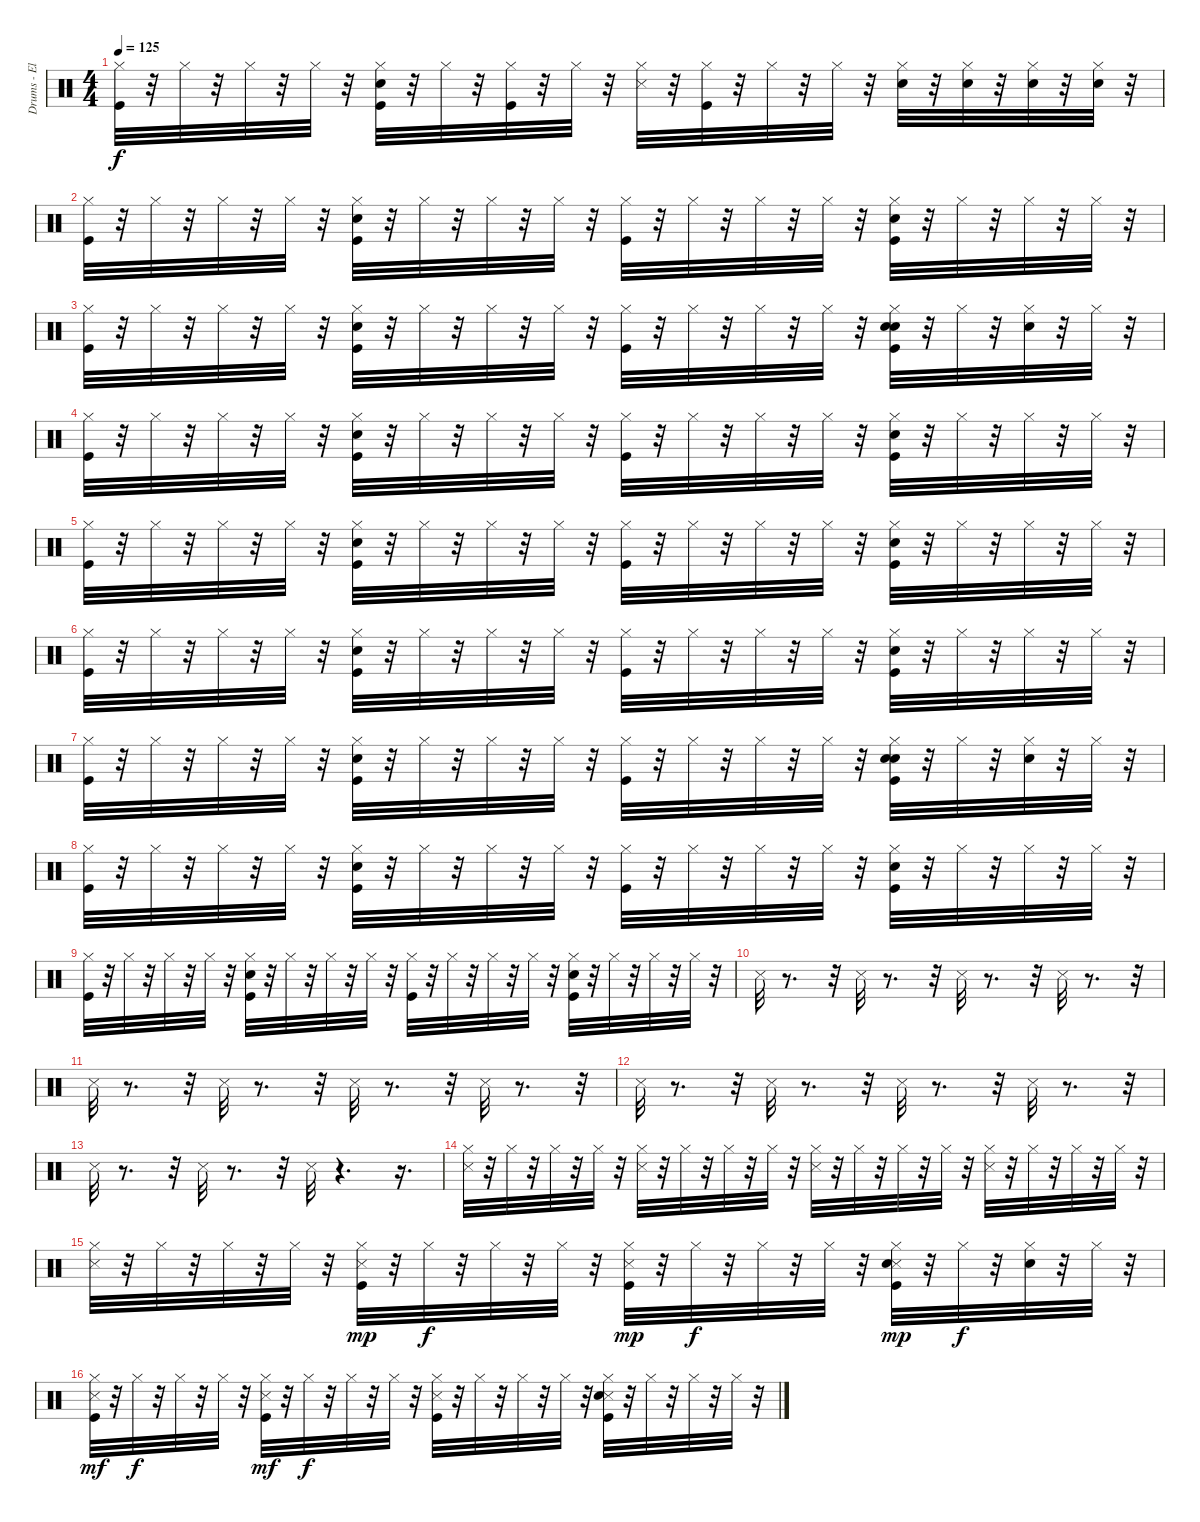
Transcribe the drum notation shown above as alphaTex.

\track ("Drums - El" "Drums - El") {instrument percussion}
\staff {score}
\articulation defaults
\ts (4 4)
\tempo 125
\clef neutral
\ks c
("Kick (hit)" "Hi-Hat (closed)").32{dy f} r.32 "Hi-Hat (closed)".32 r.32 "Hi-Hat (closed)".32 r.32 "Hi-Hat (closed)".32 r.32 ("Kick (hit)" "Electric Snare (hit)" "Hi-Hat (closed)").32 r.32 "Hi-Hat (closed)".32 r.32 ("Kick (hit)" "Hi-Hat (closed)").32 r.32 "Hi-Hat (closed)".32 r.32 ("Snare (side stick) 3" "Hi-Hat (closed)").32 r.32 ("Kick (hit)" "Hi-Hat (closed)").32 r.32 "Hi-Hat (closed)".32 r.32 "Hi-Hat (closed)".32 r.32 ("Electric Snare (hit)" "Hi-Hat (closed)").32 r.32 ("Electric Snare (hit)" "Hi-Hat (closed)").32 r.32 ("Electric Snare (hit)" "Hi-Hat (closed)").32 r.32 ("Electric Snare (hit)" "Hi-Hat (closed)").32 r.32 |
("Kick (hit)" "Hi-Hat (closed)").32 r.32 "Hi-Hat (closed)".32 r.32 "Hi-Hat (closed)".32 r.32 "Hi-Hat (closed)".32 r.32 ("Kick (hit)" "Electric Snare (hit)" "Hi-Hat (closed)").32 r.32 "Hi-Hat (closed)".32 r.32 "Hi-Hat (closed)".32 r.32 "Hi-Hat (closed)".32 r.32 ("Kick (hit)" "Hi-Hat (closed)").32 r.32 "Hi-Hat (closed)".32 r.32 "Hi-Hat (closed)".32 r.32 "Hi-Hat (closed)".32 r.32 ("Kick (hit)" "Electric Snare (hit)" "Hi-Hat (closed)").32 r.32 "Hi-Hat (closed)".32 r.32 "Hi-Hat (closed)".32 r.32 "Hi-Hat (closed)".32 r.32 |
("Kick (hit)" "Hi-Hat (closed)").32 r.32 "Hi-Hat (closed)".32 r.32 "Hi-Hat (closed)".32 r.32 "Hi-Hat (closed)".32 r.32 ("Kick (hit)" "Electric Snare (hit)" "Hi-Hat (closed)").32 r.32 "Hi-Hat (closed)".32 r.32 "Hi-Hat (closed)".32 r.32 "Hi-Hat (closed)".32 r.32 ("Kick (hit)" "Hi-Hat (closed)").32 r.32 "Hi-Hat (closed)".32 r.32 "Hi-Hat (closed)".32 r.32 "Hi-Hat (closed)".32 r.32 ("Kick (hit)" "Electric Snare (hit)" "Hand Clap (hit)" "Hi-Hat (closed)").32 r.32 "Hi-Hat (closed)".32 r.32 ("Hand Clap (hit)" "Hi-Hat (closed)").32 r.32 "Hi-Hat (closed)".32 r.32 |
("Kick (hit)" "Hi-Hat (closed)").32 r.32 "Hi-Hat (closed)".32 r.32 "Hi-Hat (closed)".32 r.32 "Hi-Hat (closed)".32 r.32 ("Kick (hit)" "Electric Snare (hit)" "Hi-Hat (closed)").32 r.32 "Hi-Hat (closed)".32 r.32 "Hi-Hat (closed)".32 r.32 "Hi-Hat (closed)".32 r.32 ("Kick (hit)" "Hi-Hat (closed)").32 r.32 "Hi-Hat (closed)".32 r.32 "Hi-Hat (closed)".32 r.32 "Hi-Hat (closed)".32 r.32 ("Kick (hit)" "Electric Snare (hit)" "Hi-Hat (closed)").32 r.32 "Hi-Hat (closed)".32 r.32 "Hi-Hat (closed)".32 r.32 "Hi-Hat (closed)".32 r.32 |
("Kick (hit)" "Hi-Hat (closed)").32 r.32 "Hi-Hat (closed)".32 r.32 "Hi-Hat (closed)".32 r.32 "Hi-Hat (closed)".32 r.32 ("Kick (hit)" "Electric Snare (hit)" "Hi-Hat (closed)").32 r.32 "Hi-Hat (closed)".32 r.32 "Hi-Hat (closed)".32 r.32 "Hi-Hat (closed)".32 r.32 ("Kick (hit)" "Hi-Hat (closed)").32 r.32 "Hi-Hat (closed)".32 r.32 "Hi-Hat (closed)".32 r.32 "Hi-Hat (closed)".32 r.32 ("Kick (hit)" "Electric Snare (hit)" "Hi-Hat (closed)").32 r.32 "Hi-Hat (closed)".32 r.32 "Hi-Hat (closed)".32 r.32 "Hi-Hat (closed)".32 r.32 |
("Kick (hit)" "Hi-Hat (closed)").32 r.32 "Hi-Hat (closed)".32 r.32 "Hi-Hat (closed)".32 r.32 "Hi-Hat (closed)".32 r.32 ("Kick (hit)" "Electric Snare (hit)" "Hi-Hat (closed)").32 r.32 "Hi-Hat (closed)".32 r.32 "Hi-Hat (closed)".32 r.32 "Hi-Hat (closed)".32 r.32 ("Kick (hit)" "Hi-Hat (closed)").32 r.32 "Hi-Hat (closed)".32 r.32 "Hi-Hat (closed)".32 r.32 "Hi-Hat (closed)".32 r.32 ("Kick (hit)" "Electric Snare (hit)" "Hi-Hat (closed)").32 r.32 "Hi-Hat (closed)".32 r.32 "Hi-Hat (closed)".32 r.32 "Hi-Hat (closed)".32 r.32 |
("Kick (hit)" "Hi-Hat (closed)").32 r.32 "Hi-Hat (closed)".32 r.32 "Hi-Hat (closed)".32 r.32 "Hi-Hat (closed)".32 r.32 ("Kick (hit)" "Electric Snare (hit)" "Hi-Hat (closed)").32 r.32 "Hi-Hat (closed)".32 r.32 "Hi-Hat (closed)".32 r.32 "Hi-Hat (closed)".32 r.32 ("Kick (hit)" "Hi-Hat (closed)").32 r.32 "Hi-Hat (closed)".32 r.32 "Hi-Hat (closed)".32 r.32 "Hi-Hat (closed)".32 r.32 ("Kick (hit)" "Electric Snare (hit)" "Hand Clap (hit)" "Hi-Hat (closed)").32 r.32 "Hi-Hat (closed)".32 r.32 ("Hand Clap (hit)" "Hi-Hat (closed)").32 r.32 "Hi-Hat (closed)".32 r.32 |
("Kick (hit)" "Hi-Hat (closed)").32 r.32 "Hi-Hat (closed)".32 r.32 "Hi-Hat (closed)".32 r.32 "Hi-Hat (closed)".32 r.32 ("Kick (hit)" "Electric Snare (hit)" "Hi-Hat (closed)").32 r.32 "Hi-Hat (closed)".32 r.32 "Hi-Hat (closed)".32 r.32 "Hi-Hat (closed)".32 r.32 ("Kick (hit)" "Hi-Hat (closed)").32 r.32 "Hi-Hat (closed)".32 r.32 "Hi-Hat (closed)".32 r.32 "Hi-Hat (closed)".32 r.32 ("Kick (hit)" "Electric Snare (hit)" "Hi-Hat (closed)").32 r.32 "Hi-Hat (closed)".32 r.32 "Hi-Hat (closed)".32 r.32 "Hi-Hat (closed)".32 r.32 |
("Kick (hit)" "Hi-Hat (closed)").32 r.32 "Hi-Hat (closed)".32 r.32 "Hi-Hat (closed)".32 r.32 "Hi-Hat (closed)".32 r.32 ("Kick (hit)" "Electric Snare (hit)" "Hi-Hat (closed)").32 r.32 "Hi-Hat (closed)".32 r.32 "Hi-Hat (closed)".32 r.32 "Hi-Hat (closed)".32 r.32 ("Kick (hit)" "Hi-Hat (closed)").32 r.32 "Hi-Hat (closed)".32 r.32 "Hi-Hat (closed)".32 r.32 "Hi-Hat (closed)".32 r.32 ("Kick (hit)" "Electric Snare (hit)" "Hi-Hat (closed)").32 r.32 "Hi-Hat (closed)".32 r.32 "Hi-Hat (closed)".32 r.32 "Hi-Hat (closed)".32 r.32 |
"Snare (side stick) 3".32 r.8{d} r.32 "Snare (side stick) 3".32 r.8{d} r.32 "Snare (side stick) 3".32 r.8{d} r.32 "Snare (side stick) 3".32 r.8{d} r.32 |
"Snare (side stick) 3".32 r.8{d} r.32 "Snare (side stick) 3".32 r.8{d} r.32 "Snare (side stick) 3".32 r.8{d} r.32 "Snare (side stick) 3".32 r.8{d} r.32 |
"Snare (side stick) 3".32 r.8{d} r.32 "Snare (side stick) 3".32 r.8{d} r.32 "Snare (side stick) 3".32 r.8{d} r.32 "Snare (side stick) 3".32 r.8{d} r.32 |
"Snare (side stick) 3".32 r.8{d} r.32 "Snare (side stick) 3".32 r.8{d} r.32 "Snare (side stick) 3".32 r.4{d} r.16{d} |
("Snare (side stick) 3" "Hi-Hat (closed)").32 r.32 "Hi-Hat (closed)".32 r.32 "Hi-Hat (closed)".32 r.32 "Hi-Hat (closed)".32 r.32 ("Snare (side stick) 3" "Hi-Hat (closed)").32 r.32 "Hi-Hat (closed)".32 r.32 "Hi-Hat (closed)".32 r.32 "Hi-Hat (closed)".32 r.32 ("Snare (side stick) 3" "Hi-Hat (closed)").32 r.32 "Hi-Hat (closed)".32 r.32 "Hi-Hat (closed)".32 r.32 "Hi-Hat (closed)".32 r.32 ("Snare (side stick) 3" "Hi-Hat (closed)").32 r.32 "Hi-Hat (closed)".32 r.32 "Hi-Hat (closed)".32 r.32 "Hi-Hat (closed)".32 r.32 |
("Snare (side stick) 3" "Hi-Hat (closed)").32 r.32 "Hi-Hat (closed)".32 r.32 "Hi-Hat (closed)".32 r.32 "Hi-Hat (closed)".32 r.32 ("Kick (hit)" "Snare (side stick) 3" "Hi-Hat (closed)").32{dy mp} r.32 "Hi-Hat (closed)".32{dy f} r.32 "Hi-Hat (closed)".32 r.32 "Hi-Hat (closed)".32 r.32 ("Kick (hit)" "Snare (side stick) 3" "Hi-Hat (closed)").32{dy mp} r.32 "Hi-Hat (closed)".32{dy f} r.32 "Hi-Hat (closed)".32 r.32 "Hi-Hat (closed)".32 r.32 ("Kick (hit)" "Snare (side stick) 3" "Hand Clap (hit)" "Hi-Hat (closed)").32{dy mp} r.32 "Hi-Hat (closed)".32{dy f} r.32 ("Hand Clap (hit)" "Hi-Hat (closed)").32 r.32 "Hi-Hat (closed)".32 r.32 |
("Kick (hit)" "Snare (side stick) 3" "Hi-Hat (closed)").32{dy mf} r.32 "Hi-Hat (closed)".32{dy f} r.32 "Hi-Hat (closed)".32 r.32 "Hi-Hat (closed)".32 r.32 ("Kick (hit)" "Snare (side stick) 3" "Hi-Hat (closed)").32{dy mf} r.32 "Hi-Hat (closed)".32{dy f} r.32 "Hi-Hat (closed)".32 r.32 "Hi-Hat (closed)".32 r.32 ("Kick (hit)" "Snare (side stick) 3" "Hi-Hat (closed)").32 r.32 "Hi-Hat (closed)".32 r.32 "Hi-Hat (closed)".32 r.32 "Hi-Hat (closed)".32 r.32 ("Kick (hit)" "Snare (side stick) 3" "Electric Snare (hit)" "Hi-Hat (closed)").32 r.32 "Hi-Hat (closed)".32 r.32 "Hi-Hat (closed)".32 r.32 "Hi-Hat (closed)".32 r.32
